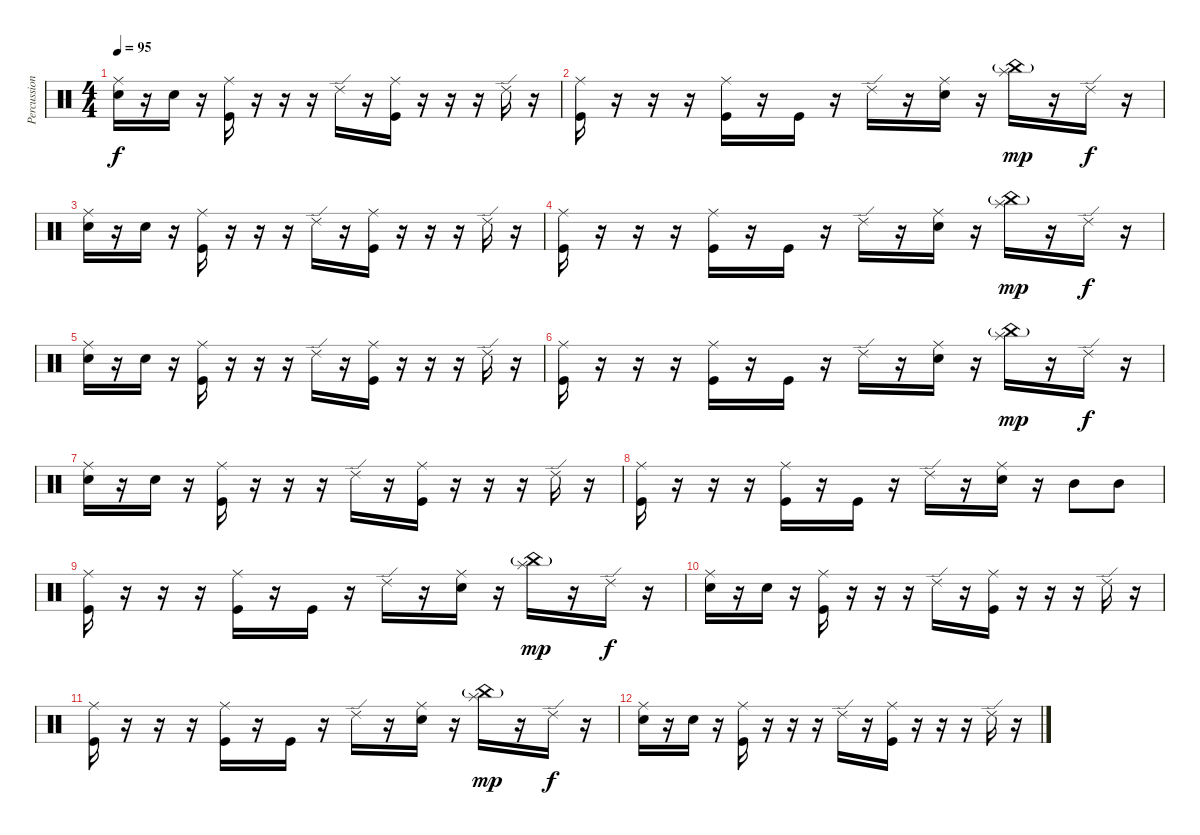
\track ("Percussions" "Percussion") {instrument percussion}
\staff {score}
\articulation defaults
\ts (4 4)
\tempo 95
\clef neutral
\ks c
("Ride (middle)" "Electric Snare (hit)").16{dy f} r.16 "Electric Snare (hit)".16 r.16 ("Ride (middle)" "Kick (hit)").16 r.16 r.16 r.16 "Ride (edge) 2".16 r.16 ("Ride (middle)" "Kick (hit)").16 r.16 r.16 r.16 "Ride (edge) 2".16 r.16 |
("Ride (middle)" "Kick (hit)").16 r.16 r.16 r.16 ("Ride (middle)" "Kick (hit)").16 r.16 "Kick (hit)".16 r.16 "Ride (edge) 2".16 r.16 ("Ride (middle)" "Electric Snare (hit)").16 r.16 ("Splash (hit)" "China (hit)"{g}).16{dy mp} r.16 "Ride (edge) 2".16{dy f} r.16 |
("Ride (middle)" "Electric Snare (hit)").16 r.16 "Electric Snare (hit)".16 r.16 ("Ride (middle)" "Kick (hit)").16 r.16 r.16 r.16 "Ride (edge) 2".16 r.16 ("Ride (middle)" "Kick (hit)").16 r.16 r.16 r.16 "Ride (edge) 2".16 r.16 |
("Ride (middle)" "Kick (hit)").16 r.16 r.16 r.16 ("Ride (middle)" "Kick (hit)").16 r.16 "Kick (hit)".16 r.16 "Ride (edge) 2".16 r.16 ("Ride (middle)" "Electric Snare (hit)").16 r.16 ("Splash (hit)" "China (hit)"{g}).16{dy mp} r.16 "Ride (edge) 2".16{dy f} r.16 |
("Ride (middle)" "Electric Snare (hit)").16 r.16 "Electric Snare (hit)".16 r.16 ("Ride (middle)" "Kick (hit)").16 r.16 r.16 r.16 "Ride (edge) 2".16 r.16 ("Ride (middle)" "Kick (hit)").16 r.16 r.16 r.16 "Ride (edge) 2".16 r.16 |
("Ride (middle)" "Kick (hit)").16 r.16 r.16 r.16 ("Ride (middle)" "Kick (hit)").16 r.16 "Kick (hit)".16 r.16 "Ride (edge) 2".16 r.16 ("Ride (middle)" "Electric Snare (hit)").16 r.16 ("Splash (hit)" "China (hit)"{g}).16{dy mp} r.16 "Ride (edge) 2".16{dy f} r.16 |
("Ride (middle)" "Electric Snare (hit)").16 r.16 "Electric Snare (hit)".16 r.16 ("Ride (middle)" "Kick (hit)").16 r.16 r.16 r.16 "Ride (edge) 2".16 r.16 ("Ride (middle)" "Kick (hit)").16 r.16 r.16 r.16 "Ride (edge) 2".16 r.16 |
("Ride (middle)" "Kick (hit)").16 r.16 r.16 r.16 ("Ride (middle)" "Kick (hit)").16 r.16 "Kick (hit)".16 r.16 "Ride (edge) 2".16 r.16 ("Ride (middle)" "Electric Snare (hit)").16 r.16 "Mid Tom (hit)".8 "Mid Tom (hit)".8 |
("Ride (middle)" "Kick (hit)").16 r.16 r.16 r.16 ("Ride (middle)" "Kick (hit)").16 r.16 "Kick (hit)".16 r.16 "Ride (edge) 2".16 r.16 ("Ride (middle)" "Electric Snare (hit)").16 r.16 ("Splash (hit)" "China (hit)"{g}).16{dy mp} r.16 "Ride (edge) 2".16{dy f} r.16 |
("Ride (middle)" "Electric Snare (hit)").16 r.16 "Electric Snare (hit)".16 r.16 ("Ride (middle)" "Kick (hit)").16 r.16 r.16 r.16 "Ride (edge) 2".16 r.16 ("Ride (middle)" "Kick (hit)").16 r.16 r.16 r.16 "Ride (edge) 2".16 r.16 |
("Ride (middle)" "Kick (hit)").16 r.16 r.16 r.16 ("Ride (middle)" "Kick (hit)").16 r.16 "Kick (hit)".16 r.16 "Ride (edge) 2".16 r.16 ("Ride (middle)" "Electric Snare (hit)").16 r.16 ("Splash (hit)" "China (hit)"{g}).16{dy mp} r.16 "Ride (edge) 2".16{dy f} r.16 |
("Ride (middle)" "Electric Snare (hit)").16 r.16 "Electric Snare (hit)".16 r.16 ("Ride (middle)" "Kick (hit)").16 r.16 r.16 r.16 "Ride (edge) 2".16 r.16 ("Ride (middle)" "Kick (hit)").16 r.16 r.16 r.16 "Ride (edge) 2".16 r.16
